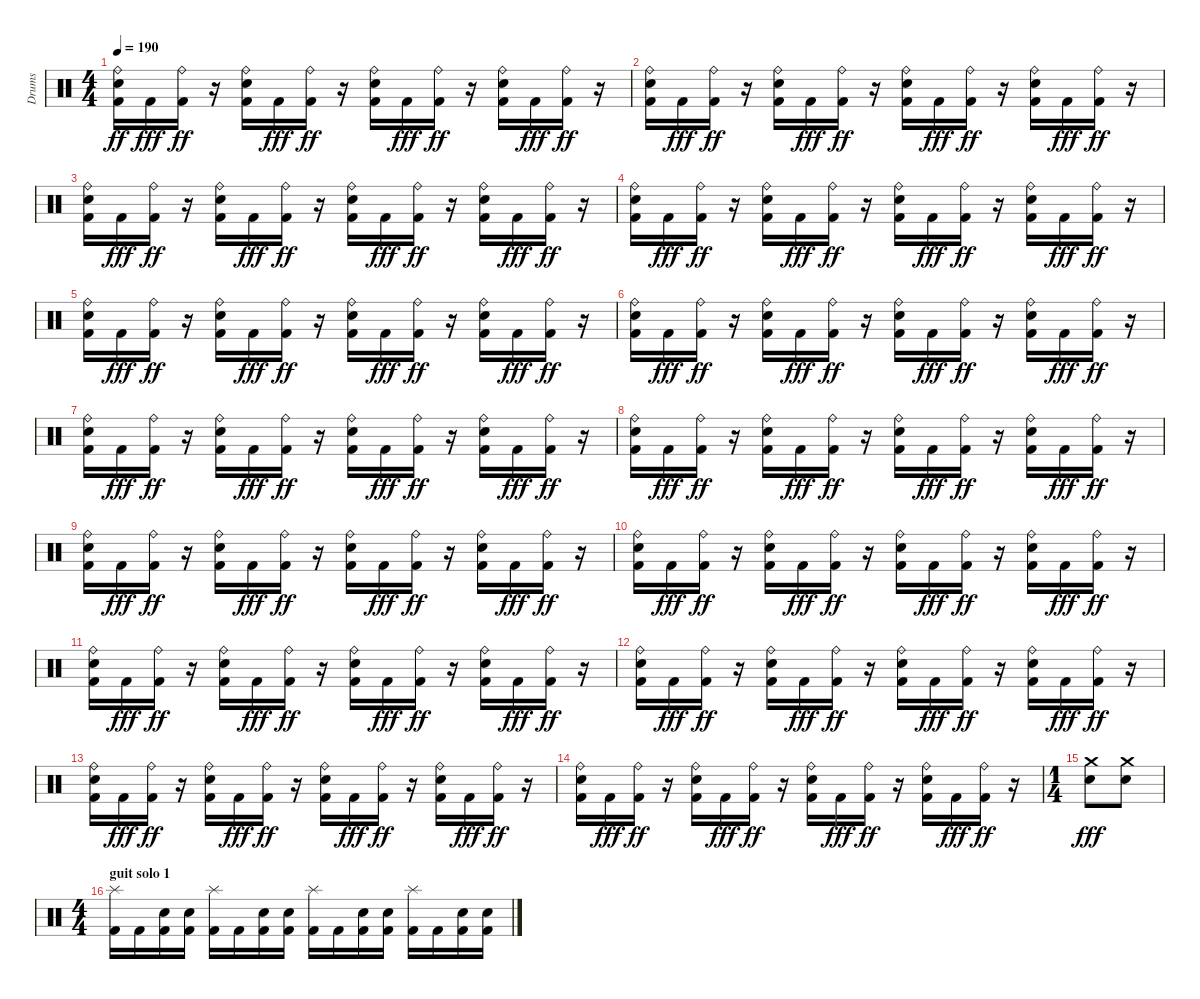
\track ("Drums" "Drums") {instrument percussion}
\staff {score}
\articulation defaults
\ts (4 4)
\tempo 190
\clef neutral
\ks c
("Kick (hit) 2" "Ride (bell)" "Electric Snare (hit)").16{dy ff} "Kick (hit) 2".16{dy fff} ("Kick (hit) 2" "Ride (bell)").16{dy ff} r.16 ("Kick (hit) 2" "Ride (bell)" "Electric Snare (hit)").16 "Kick (hit) 2".16{dy fff} ("Kick (hit) 2" "Ride (bell)").16{dy ff} r.16 ("Kick (hit) 2" "Ride (bell)" "Electric Snare (hit)").16 "Kick (hit) 2".16{dy fff} ("Kick (hit) 2" "Ride (bell)").16{dy ff} r.16 ("Kick (hit) 2" "Ride (bell)" "Electric Snare (hit)").16 "Kick (hit) 2".16{dy fff} ("Kick (hit) 2" "Ride (bell)").16{dy ff} r.16 |
("Kick (hit) 2" "Ride (bell)" "Electric Snare (hit)").16 "Kick (hit) 2".16{dy fff} ("Kick (hit) 2" "Ride (bell)").16{dy ff} r.16 ("Kick (hit) 2" "Ride (bell)" "Electric Snare (hit)").16 "Kick (hit) 2".16{dy fff} ("Kick (hit) 2" "Ride (bell)").16{dy ff} r.16 ("Kick (hit) 2" "Ride (bell)" "Electric Snare (hit)").16 "Kick (hit) 2".16{dy fff} ("Kick (hit) 2" "Ride (bell)").16{dy ff} r.16 ("Kick (hit) 2" "Ride (bell)" "Electric Snare (hit)").16 "Kick (hit) 2".16{dy fff} ("Kick (hit) 2" "Ride (bell)").16{dy ff} r.16 |
("Kick (hit) 2" "Ride (bell)" "Electric Snare (hit)").16 "Kick (hit) 2".16{dy fff} ("Kick (hit) 2" "Ride (bell)").16{dy ff} r.16 ("Kick (hit) 2" "Ride (bell)" "Electric Snare (hit)").16 "Kick (hit) 2".16{dy fff} ("Kick (hit) 2" "Ride (bell)").16{dy ff} r.16 ("Kick (hit) 2" "Ride (bell)" "Electric Snare (hit)").16 "Kick (hit) 2".16{dy fff} ("Kick (hit) 2" "Ride (bell)").16{dy ff} r.16 ("Kick (hit) 2" "Ride (bell)" "Electric Snare (hit)").16 "Kick (hit) 2".16{dy fff} ("Kick (hit) 2" "Ride (bell)").16{dy ff} r.16 |
("Kick (hit) 2" "Ride (bell)" "Electric Snare (hit)").16 "Kick (hit) 2".16{dy fff} ("Kick (hit) 2" "Ride (bell)").16{dy ff} r.16 ("Kick (hit) 2" "Ride (bell)" "Electric Snare (hit)").16 "Kick (hit) 2".16{dy fff} ("Kick (hit) 2" "Ride (bell)").16{dy ff} r.16 ("Kick (hit) 2" "Ride (bell)" "Electric Snare (hit)").16 "Kick (hit) 2".16{dy fff} ("Kick (hit) 2" "Ride (bell)").16{dy ff} r.16 ("Kick (hit) 2" "Ride (bell)" "Electric Snare (hit)").16 "Kick (hit) 2".16{dy fff} ("Kick (hit) 2" "Ride (bell)").16{dy ff} r.16 |
("Kick (hit) 2" "Ride (bell)" "Electric Snare (hit)").16 "Kick (hit) 2".16{dy fff} ("Kick (hit) 2" "Ride (bell)").16{dy ff} r.16 ("Kick (hit) 2" "Ride (bell)" "Electric Snare (hit)").16 "Kick (hit) 2".16{dy fff} ("Kick (hit) 2" "Ride (bell)").16{dy ff} r.16 ("Kick (hit) 2" "Ride (bell)" "Electric Snare (hit)").16 "Kick (hit) 2".16{dy fff} ("Kick (hit) 2" "Ride (bell)").16{dy ff} r.16 ("Kick (hit) 2" "Ride (bell)" "Electric Snare (hit)").16 "Kick (hit) 2".16{dy fff} ("Kick (hit) 2" "Ride (bell)").16{dy ff} r.16 |
("Kick (hit) 2" "Ride (bell)" "Electric Snare (hit)").16 "Kick (hit) 2".16{dy fff} ("Kick (hit) 2" "Ride (bell)").16{dy ff} r.16 ("Kick (hit) 2" "Ride (bell)" "Electric Snare (hit)").16 "Kick (hit) 2".16{dy fff} ("Kick (hit) 2" "Ride (bell)").16{dy ff} r.16 ("Kick (hit) 2" "Ride (bell)" "Electric Snare (hit)").16 "Kick (hit) 2".16{dy fff} ("Kick (hit) 2" "Ride (bell)").16{dy ff} r.16 ("Kick (hit) 2" "Ride (bell)" "Electric Snare (hit)").16 "Kick (hit) 2".16{dy fff} ("Kick (hit) 2" "Ride (bell)").16{dy ff} r.16 |
("Kick (hit) 2" "Ride (bell)" "Electric Snare (hit)").16 "Kick (hit) 2".16{dy fff} ("Kick (hit) 2" "Ride (bell)").16{dy ff} r.16 ("Kick (hit) 2" "Ride (bell)" "Electric Snare (hit)").16 "Kick (hit) 2".16{dy fff} ("Kick (hit) 2" "Ride (bell)").16{dy ff} r.16 ("Kick (hit) 2" "Ride (bell)" "Electric Snare (hit)").16 "Kick (hit) 2".16{dy fff} ("Kick (hit) 2" "Ride (bell)").16{dy ff} r.16 ("Kick (hit) 2" "Ride (bell)" "Electric Snare (hit)").16 "Kick (hit) 2".16{dy fff} ("Kick (hit) 2" "Ride (bell)").16{dy ff} r.16 |
("Kick (hit) 2" "Ride (bell)" "Electric Snare (hit)").16 "Kick (hit) 2".16{dy fff} ("Kick (hit) 2" "Ride (bell)").16{dy ff} r.16 ("Kick (hit) 2" "Ride (bell)" "Electric Snare (hit)").16 "Kick (hit) 2".16{dy fff} ("Kick (hit) 2" "Ride (bell)").16{dy ff} r.16 ("Kick (hit) 2" "Ride (bell)" "Electric Snare (hit)").16 "Kick (hit) 2".16{dy fff} ("Kick (hit) 2" "Ride (bell)").16{dy ff} r.16 ("Kick (hit) 2" "Ride (bell)" "Electric Snare (hit)").16 "Kick (hit) 2".16{dy fff} ("Kick (hit) 2" "Ride (bell)").16{dy ff} r.16 |
("Kick (hit) 2" "Ride (bell)" "Electric Snare (hit)").16 "Kick (hit) 2".16{dy fff} ("Kick (hit) 2" "Ride (bell)").16{dy ff} r.16 ("Kick (hit) 2" "Ride (bell)" "Electric Snare (hit)").16 "Kick (hit) 2".16{dy fff} ("Kick (hit) 2" "Ride (bell)").16{dy ff} r.16 ("Kick (hit) 2" "Ride (bell)" "Electric Snare (hit)").16 "Kick (hit) 2".16{dy fff} ("Kick (hit) 2" "Ride (bell)").16{dy ff} r.16 ("Kick (hit) 2" "Ride (bell)" "Electric Snare (hit)").16 "Kick (hit) 2".16{dy fff} ("Kick (hit) 2" "Ride (bell)").16{dy ff} r.16 |
("Kick (hit) 2" "Ride (bell)" "Electric Snare (hit)").16 "Kick (hit) 2".16{dy fff} ("Kick (hit) 2" "Ride (bell)").16{dy ff} r.16 ("Kick (hit) 2" "Ride (bell)" "Electric Snare (hit)").16 "Kick (hit) 2".16{dy fff} ("Kick (hit) 2" "Ride (bell)").16{dy ff} r.16 ("Kick (hit) 2" "Ride (bell)" "Electric Snare (hit)").16 "Kick (hit) 2".16{dy fff} ("Kick (hit) 2" "Ride (bell)").16{dy ff} r.16 ("Kick (hit) 2" "Ride (bell)" "Electric Snare (hit)").16 "Kick (hit) 2".16{dy fff} ("Kick (hit) 2" "Ride (bell)").16{dy ff} r.16 |
("Kick (hit) 2" "Ride (bell)" "Electric Snare (hit)").16 "Kick (hit) 2".16{dy fff} ("Kick (hit) 2" "Ride (bell)").16{dy ff} r.16 ("Kick (hit) 2" "Ride (bell)" "Electric Snare (hit)").16 "Kick (hit) 2".16{dy fff} ("Kick (hit) 2" "Ride (bell)").16{dy ff} r.16 ("Kick (hit) 2" "Ride (bell)" "Electric Snare (hit)").16 "Kick (hit) 2".16{dy fff} ("Kick (hit) 2" "Ride (bell)").16{dy ff} r.16 ("Kick (hit) 2" "Ride (bell)" "Electric Snare (hit)").16 "Kick (hit) 2".16{dy fff} ("Kick (hit) 2" "Ride (bell)").16{dy ff} r.16 |
("Kick (hit) 2" "Ride (bell)" "Electric Snare (hit)").16 "Kick (hit) 2".16{dy fff} ("Kick (hit) 2" "Ride (bell)").16{dy ff} r.16 ("Kick (hit) 2" "Ride (bell)" "Electric Snare (hit)").16 "Kick (hit) 2".16{dy fff} ("Kick (hit) 2" "Ride (bell)").16{dy ff} r.16 ("Kick (hit) 2" "Ride (bell)" "Electric Snare (hit)").16 "Kick (hit) 2".16{dy fff} ("Kick (hit) 2" "Ride (bell)").16{dy ff} r.16 ("Kick (hit) 2" "Ride (bell)" "Electric Snare (hit)").16 "Kick (hit) 2".16{dy fff} ("Kick (hit) 2" "Ride (bell)").16{dy ff} r.16 |
("Kick (hit) 2" "Ride (bell)" "Electric Snare (hit)").16 "Kick (hit) 2".16{dy fff} ("Kick (hit) 2" "Ride (bell)").16{dy ff} r.16 ("Kick (hit) 2" "Ride (bell)" "Electric Snare (hit)").16 "Kick (hit) 2".16{dy fff} ("Kick (hit) 2" "Ride (bell)").16{dy ff} r.16 ("Kick (hit) 2" "Ride (bell)" "Electric Snare (hit)").16 "Kick (hit) 2".16{dy fff} ("Kick (hit) 2" "Ride (bell)").16{dy ff} r.16 ("Kick (hit) 2" "Ride (bell)" "Electric Snare (hit)").16 "Kick (hit) 2".16{dy fff} ("Kick (hit) 2" "Ride (bell)").16{dy ff} r.16 |
("Kick (hit) 2" "Ride (bell)" "Electric Snare (hit)").16 "Kick (hit) 2".16{dy fff} ("Kick (hit) 2" "Ride (bell)").16{dy ff} r.16 ("Kick (hit) 2" "Ride (bell)" "Electric Snare (hit)").16 "Kick (hit) 2".16{dy fff} ("Kick (hit) 2" "Ride (bell)").16{dy ff} r.16 ("Kick (hit) 2" "Ride (bell)" "Electric Snare (hit)").16 "Kick (hit) 2".16{dy fff} ("Kick (hit) 2" "Ride (bell)").16{dy ff} r.16 ("Kick (hit) 2" "Ride (bell)" "Electric Snare (hit)").16 "Kick (hit) 2".16{dy fff} ("Kick (hit) 2" "Ride (bell)").16{dy ff} r.16 |
\ts (1 4)
("Crash medium (hit)" "Electric Snare (hit)").8{dy fff} ("Crash medium (hit)" "Electric Snare (hit)").8 |
\ts (4 4)
\section ("" "guit solo 1")
("Splash (hit)" "Kick (hit) 2").16 "Kick (hit) 2".16 ("Electric Snare (hit)" "Kick (hit) 2").16 ("Electric Snare (hit)" "Kick (hit) 2").16 ("Splash (hit)" "Kick (hit) 2").16 "Kick (hit) 2".16 ("Electric Snare (hit)" "Kick (hit) 2").16 ("Electric Snare (hit)" "Kick (hit) 2").16 ("Splash (hit)" "Kick (hit) 2").16 "Kick (hit) 2".16 ("Electric Snare (hit)" "Kick (hit) 2").16 ("Electric Snare (hit)" "Kick (hit) 2").16 ("Splash (hit)" "Kick (hit) 2").16 "Kick (hit) 2".16 ("Electric Snare (hit)" "Kick (hit) 2").16 ("Electric Snare (hit)" "Kick (hit) 2").16
